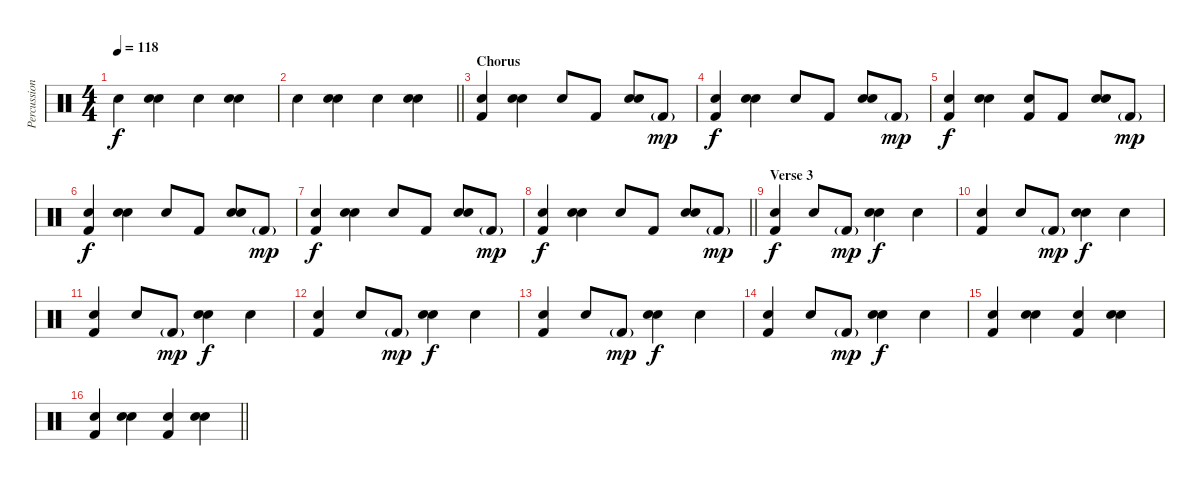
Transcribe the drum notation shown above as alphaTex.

\track ("Percussion" "Percussion") {instrument percussion}
\staff {score}
\articulation defaults
\ts (4 4)
\tempo 118
\clef neutral
\ks c "Hand Clap (hit)".4{dy f}
("Hand Clap (hit)" "Snare (hit) 2").4 "Hand Clap (hit)".4 ("Hand Clap (hit)" "Snare (hit) 2").4 |
\barLineRight lightlight "Hand Clap (hit)".4
("Hand Clap (hit)" "Snare (hit) 2").4 "Hand Clap (hit)".4 ("Hand Clap (hit)" "Snare (hit) 2").4 |
\section ("" "Chorus")
("Hand Clap (hit)" "Kick (hit) 2").4 ("Hand Clap (hit)" "Snare (hit) 2").4 "Hand Clap (hit)".8 "Kick (hit) 2".8 ("Hand Clap (hit)" "Snare (hit) 2").8 "Kick (hit) 2"{g}.8{dy mp} |
("Hand Clap (hit)" "Kick (hit) 2").4{dy f} ("Hand Clap (hit)" "Snare (hit) 2").4 "Hand Clap (hit)".8 "Kick (hit) 2".8 ("Hand Clap (hit)" "Snare (hit) 2").8 "Kick (hit) 2"{g}.8{dy mp} |
("Hand Clap (hit)" "Kick (hit) 2").4{dy f} ("Hand Clap (hit)" "Snare (hit) 2").4 ("Hand Clap (hit)" "Kick (hit) 2").8 "Kick (hit) 2".8 ("Hand Clap (hit)" "Snare (hit) 2").8 "Kick (hit) 2"{g}.8{dy mp} |
("Hand Clap (hit)" "Kick (hit) 2").4{dy f} ("Hand Clap (hit)" "Snare (hit) 2").4 "Hand Clap (hit)".8 "Kick (hit) 2".8 ("Hand Clap (hit)" "Snare (hit) 2").8 "Kick (hit) 2"{g}.8{dy mp} |
("Hand Clap (hit)" "Kick (hit) 2").4{dy f} ("Hand Clap (hit)" "Snare (hit) 2").4 "Hand Clap (hit)".8 "Kick (hit) 2".8 ("Hand Clap (hit)" "Snare (hit) 2").8 "Kick (hit) 2"{g}.8{dy mp} |
\barLineRight lightlight
("Hand Clap (hit)" "Kick (hit) 2").4{dy f} ("Hand Clap (hit)" "Snare (hit) 2").4 "Hand Clap (hit)".8 "Kick (hit) 2".8 ("Hand Clap (hit)" "Snare (hit) 2").8 "Kick (hit) 2"{g}.8{dy mp} |
\section ("" "Verse 3")
("Hand Clap (hit)" "Kick (hit) 2").4{dy f} "Hand Clap (hit)".8 "Kick (hit) 2"{g}.8{dy mp} ("Hand Clap (hit)" "Snare (hit) 2").4{dy f} "Hand Clap (hit)".4 |
("Hand Clap (hit)" "Kick (hit) 2").4 "Hand Clap (hit)".8 "Kick (hit) 2"{g}.8{dy mp} ("Hand Clap (hit)" "Snare (hit) 2").4{dy f} "Hand Clap (hit)".4 |
("Hand Clap (hit)" "Kick (hit) 2").4 "Hand Clap (hit)".8 "Kick (hit) 2"{g}.8{dy mp} ("Hand Clap (hit)" "Snare (hit) 2").4{dy f} "Hand Clap (hit)".4 |
("Hand Clap (hit)" "Kick (hit) 2").4 "Hand Clap (hit)".8 "Kick (hit) 2"{g}.8{dy mp} ("Hand Clap (hit)" "Snare (hit) 2").4{dy f} "Hand Clap (hit)".4 |
("Hand Clap (hit)" "Kick (hit) 2").4 "Hand Clap (hit)".8 "Kick (hit) 2"{g}.8{dy mp} ("Hand Clap (hit)" "Snare (hit) 2").4{dy f} "Hand Clap (hit)".4 |
("Hand Clap (hit)" "Kick (hit) 2").4 "Hand Clap (hit)".8 "Kick (hit) 2"{g}.8{dy mp} ("Hand Clap (hit)" "Snare (hit) 2").4{dy f} "Hand Clap (hit)".4 |
("Hand Clap (hit)" "Kick (hit) 2").4 ("Hand Clap (hit)" "Snare (hit) 2").4 ("Hand Clap (hit)" "Kick (hit) 2").4 ("Hand Clap (hit)" "Snare (hit) 2").4 |
\barLineRight lightlight
("Hand Clap (hit)" "Kick (hit) 2").4 ("Hand Clap (hit)" "Snare (hit) 2").4 ("Hand Clap (hit)" "Kick (hit) 2").4 ("Hand Clap (hit)" "Snare (hit) 2").4
